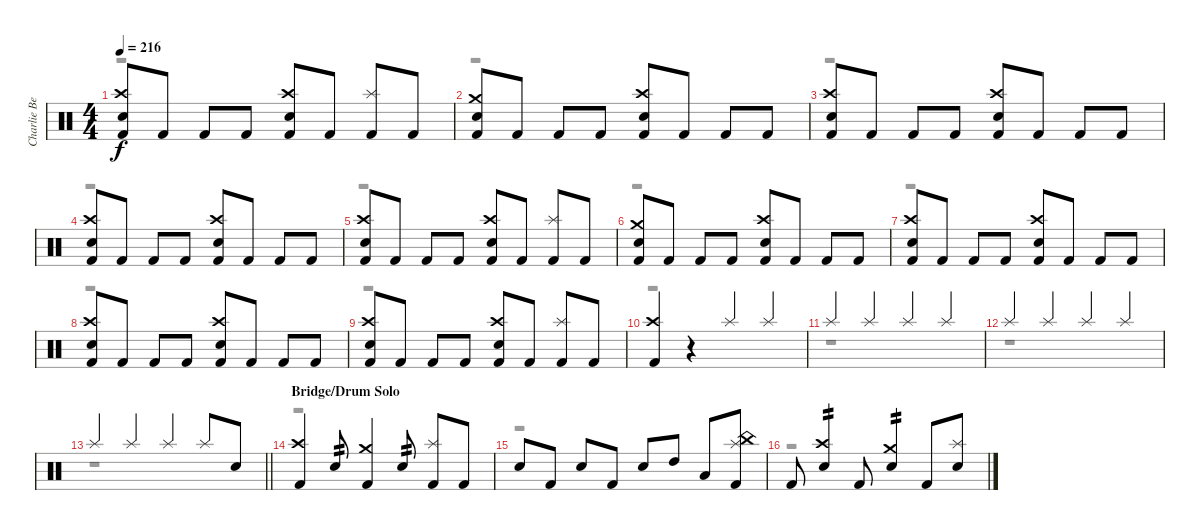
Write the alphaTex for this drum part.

\track ("Charlie Benante" "Charlie Be") {instrument percussion}
\staff {score}
\articulation defaults
\voice
\ts (4 4)
\tempo 216
\clef neutral
\ks c
("Crash high (hit)" "Electric Snare (hit)" "Kick (hit) 2").8{dy f} "Kick (hit) 2".8 "Kick (hit) 2".8 "Kick (hit) 2".8 ("Crash high (hit)" "Electric Snare (hit)" "Kick (hit) 2").8 "Kick (hit) 2".8 ("Splash (hit)" "Kick (hit) 2").8 "Kick (hit) 2".8 |
("Crash medium (hit)" "Electric Snare (hit)" "Kick (hit) 2").8 "Kick (hit) 2".8 "Kick (hit) 2".8 "Kick (hit) 2".8 ("Crash high (hit)" "Electric Snare (hit)" "Kick (hit) 2").8 "Kick (hit) 2".8 "Kick (hit) 2".8 "Kick (hit) 2".8 |
("Crash high (hit)" "Electric Snare (hit)" "Kick (hit) 2").8 "Kick (hit) 2".8 "Kick (hit) 2".8 "Kick (hit) 2".8 ("Crash high (hit)" "Electric Snare (hit)" "Kick (hit) 2").8 "Kick (hit) 2".8 "Kick (hit) 2".8 "Kick (hit) 2".8 |
("Crash high (hit)" "Electric Snare (hit)" "Kick (hit) 2").8 "Kick (hit) 2".8 "Kick (hit) 2".8 "Kick (hit) 2".8 ("Crash high (hit)" "Electric Snare (hit)" "Kick (hit) 2").8 "Kick (hit) 2".8 "Kick (hit) 2".8 "Kick (hit) 2".8 |
("Crash high (hit)" "Electric Snare (hit)" "Kick (hit) 2").8 "Kick (hit) 2".8 "Kick (hit) 2".8 "Kick (hit) 2".8 ("Crash high (hit)" "Electric Snare (hit)" "Kick (hit) 2").8 "Kick (hit) 2".8 ("Splash (hit)" "Kick (hit) 2").8 "Kick (hit) 2".8 |
("Crash medium (hit)" "Electric Snare (hit)" "Kick (hit) 2").8 "Kick (hit) 2".8 "Kick (hit) 2".8 "Kick (hit) 2".8 ("Crash high (hit)" "Electric Snare (hit)" "Kick (hit) 2").8 "Kick (hit) 2".8 "Kick (hit) 2".8 "Kick (hit) 2".8 |
("Crash high (hit)" "Electric Snare (hit)" "Kick (hit) 2").8 "Kick (hit) 2".8 "Kick (hit) 2".8 "Kick (hit) 2".8 ("Crash high (hit)" "Electric Snare (hit)" "Kick (hit) 2").8 "Kick (hit) 2".8 "Kick (hit) 2".8 "Kick (hit) 2".8 |
("Crash high (hit)" "Electric Snare (hit)" "Kick (hit) 2").8 "Kick (hit) 2".8 "Kick (hit) 2".8 "Kick (hit) 2".8 ("Crash high (hit)" "Electric Snare (hit)" "Kick (hit) 2").8 "Kick (hit) 2".8 "Kick (hit) 2".8 "Kick (hit) 2".8 |
("Crash high (hit)" "Electric Snare (hit)" "Kick (hit) 2").8 "Kick (hit) 2".8 "Kick (hit) 2".8 "Kick (hit) 2".8 ("Crash high (hit)" "Electric Snare (hit)" "Kick (hit) 2").8 "Kick (hit) 2".8 ("Splash (hit)" "Kick (hit) 2").8 "Kick (hit) 2".8 |
("Crash high (hit)" "Kick (hit) 2").4 r.4 "Splash (hit)".4 "Splash (hit)".4 |
"Splash (hit)".4 "Splash (hit)".4 "Splash (hit)".4 "Splash (hit)".4 |
"Splash (hit)".4 "Splash (hit)".4 "Splash (hit)".4 "Splash (hit)".4 |
\barLineRight lightlight "Splash (hit)".4 "Splash (hit)".4 "Splash (hit)".4 "Splash (hit)".8 "Electric Snare (hit)".8
|
\section ("" "Bridge/Drum Solo")
("Crash high (hit)" "Kick (hit) 2").4 "Electric Snare (hit)".8{tp 2} ("Crash medium (hit)" "Kick (hit) 2").4 "Electric Snare (hit)".8{tp 2} ("Splash (hit)" "Kick (hit) 2").8 "Kick (hit) 2".8 |
"Electric Snare (hit)".8 "Kick (hit) 2".8 "Electric Snare (hit)".8 "Kick (hit) 2".8 "Electric Snare (hit)".8 "High Tom (hit)".8 "Low Tom (hit)".8 ("China (hit)" "Splash (hit)" "Kick (hit) 2").8 |
"Kick (hit) 2".8 ("Crash high (hit)" "Electric Snare (hit)").4{tp 2} "Kick (hit) 2".8 ("Crash medium (hit)" "Electric Snare (hit)").4{tp 2} "Kick (hit) 2".8 ("Splash (hit)" "Electric Snare (hit)").8
\voice
\clef neutral
\ottava regular
\simile none
\ks c
r.1{dy f} |
r.1 |
r.1 |
r.1 |
r.1 |
r.1 |
r.1 |
r.1 |
r.1 |
r.1 |
r.1 |
r.1 |
\barLineRight lightlight
r.1 |
r.1 |
r.1 |
r.1
